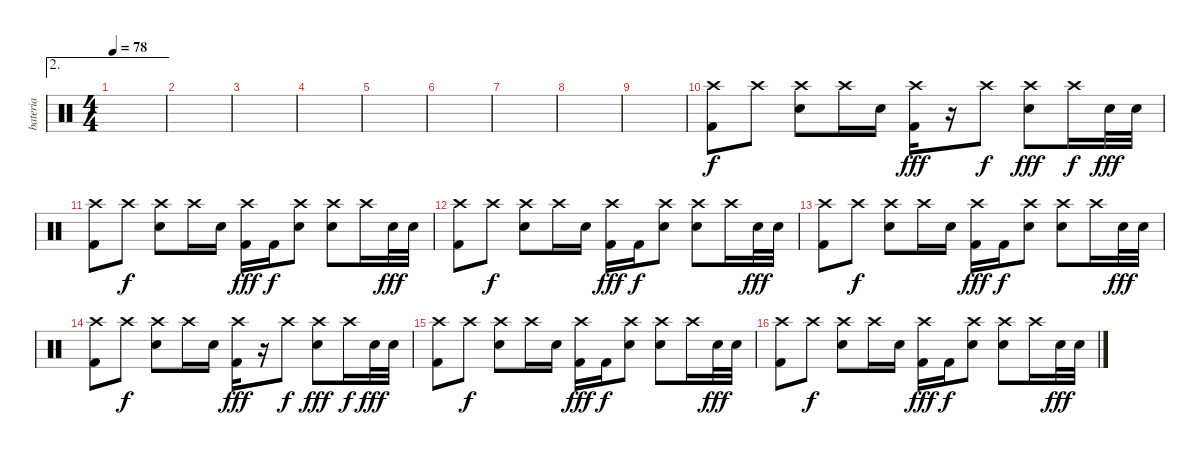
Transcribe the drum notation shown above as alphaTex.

\track ("bateria" "bateria") {instrument percussion}
\staff {score}
\articulation defaults
\ae 2
\ts (4 4)
\tempo 78
\clef neutral
\ks c
|
|
|
|
|
|
|
|
|
("Kick (hit) 2" "Crash high (hit)").8 "Crash high (hit)".8{dy f} ("Electric Snare (hit)" "Crash high (hit)").8 "Crash high (hit)".16 "Electric Snare (hit)".16 ("Kick (hit) 2" "Crash high (hit)").16{dy fff} r.16 "Crash high (hit)".8{dy f} ("Electric Snare (hit)" "Crash high (hit)").8{dy fff} "Crash high (hit)".16{dy f} "Electric Snare (hit)".32{dy fff} "Electric Snare (hit)".32 |
("Kick (hit) 2" "Crash high (hit)").8 "Crash high (hit)".8{dy f} ("Electric Snare (hit)" "Crash high (hit)").8 "Crash high (hit)".16 "Electric Snare (hit)".16 ("Kick (hit) 2" "Crash high (hit)").16{dy fff} "Kick (hit) 2".16{dy f} ("Electric Snare (hit)" "Crash high (hit)").8 ("Electric Snare (hit)" "Crash high (hit)").8 "Crash high (hit)".16 "Electric Snare (hit)".32{dy fff} "Electric Snare (hit)".32 |
("Kick (hit) 2" "Crash high (hit)").8 "Crash high (hit)".8{dy f} ("Electric Snare (hit)" "Crash high (hit)").8 "Crash high (hit)".16 "Electric Snare (hit)".16 ("Kick (hit) 2" "Crash high (hit)").16{dy fff} "Kick (hit) 2".16{dy f} ("Electric Snare (hit)" "Crash high (hit)").8 ("Electric Snare (hit)" "Crash high (hit)").8 "Crash high (hit)".16 "Electric Snare (hit)".32{dy fff} "Electric Snare (hit)".32 |
("Kick (hit) 2" "Crash high (hit)").8 "Crash high (hit)".8{dy f} ("Electric Snare (hit)" "Crash high (hit)").8 "Crash high (hit)".16 "Electric Snare (hit)".16 ("Kick (hit) 2" "Crash high (hit)").16{dy fff} "Kick (hit) 2".16{dy f} ("Electric Snare (hit)" "Crash high (hit)").8 ("Electric Snare (hit)" "Crash high (hit)").8 "Crash high (hit)".16 "Electric Snare (hit)".32{dy fff} "Electric Snare (hit)".32 |
("Kick (hit) 2" "Crash high (hit)").8 "Crash high (hit)".8{dy f} ("Electric Snare (hit)" "Crash high (hit)").8 "Crash high (hit)".16 "Electric Snare (hit)".16 ("Kick (hit) 2" "Crash high (hit)").16{dy fff} r.16 "Crash high (hit)".8{dy f} ("Electric Snare (hit)" "Crash high (hit)").8{dy fff} "Crash high (hit)".16{dy f} "Electric Snare (hit)".32{dy fff} "Electric Snare (hit)".32 |
("Kick (hit) 2" "Crash high (hit)").8 "Crash high (hit)".8{dy f} ("Electric Snare (hit)" "Crash high (hit)").8 "Crash high (hit)".16 "Electric Snare (hit)".16 ("Kick (hit) 2" "Crash high (hit)").16{dy fff} "Kick (hit) 2".16{dy f} ("Electric Snare (hit)" "Crash high (hit)").8 ("Electric Snare (hit)" "Crash high (hit)").8 "Crash high (hit)".16 "Electric Snare (hit)".32{dy fff} "Electric Snare (hit)".32 |
("Kick (hit) 2" "Crash high (hit)").8 "Crash high (hit)".8{dy f} ("Electric Snare (hit)" "Crash high (hit)").8 "Crash high (hit)".16 "Electric Snare (hit)".16 ("Kick (hit) 2" "Crash high (hit)").16{dy fff} "Kick (hit) 2".16{dy f} ("Electric Snare (hit)" "Crash high (hit)").8 ("Electric Snare (hit)" "Crash high (hit)").8 "Crash high (hit)".16 "Electric Snare (hit)".32{dy fff} "Electric Snare (hit)".32
